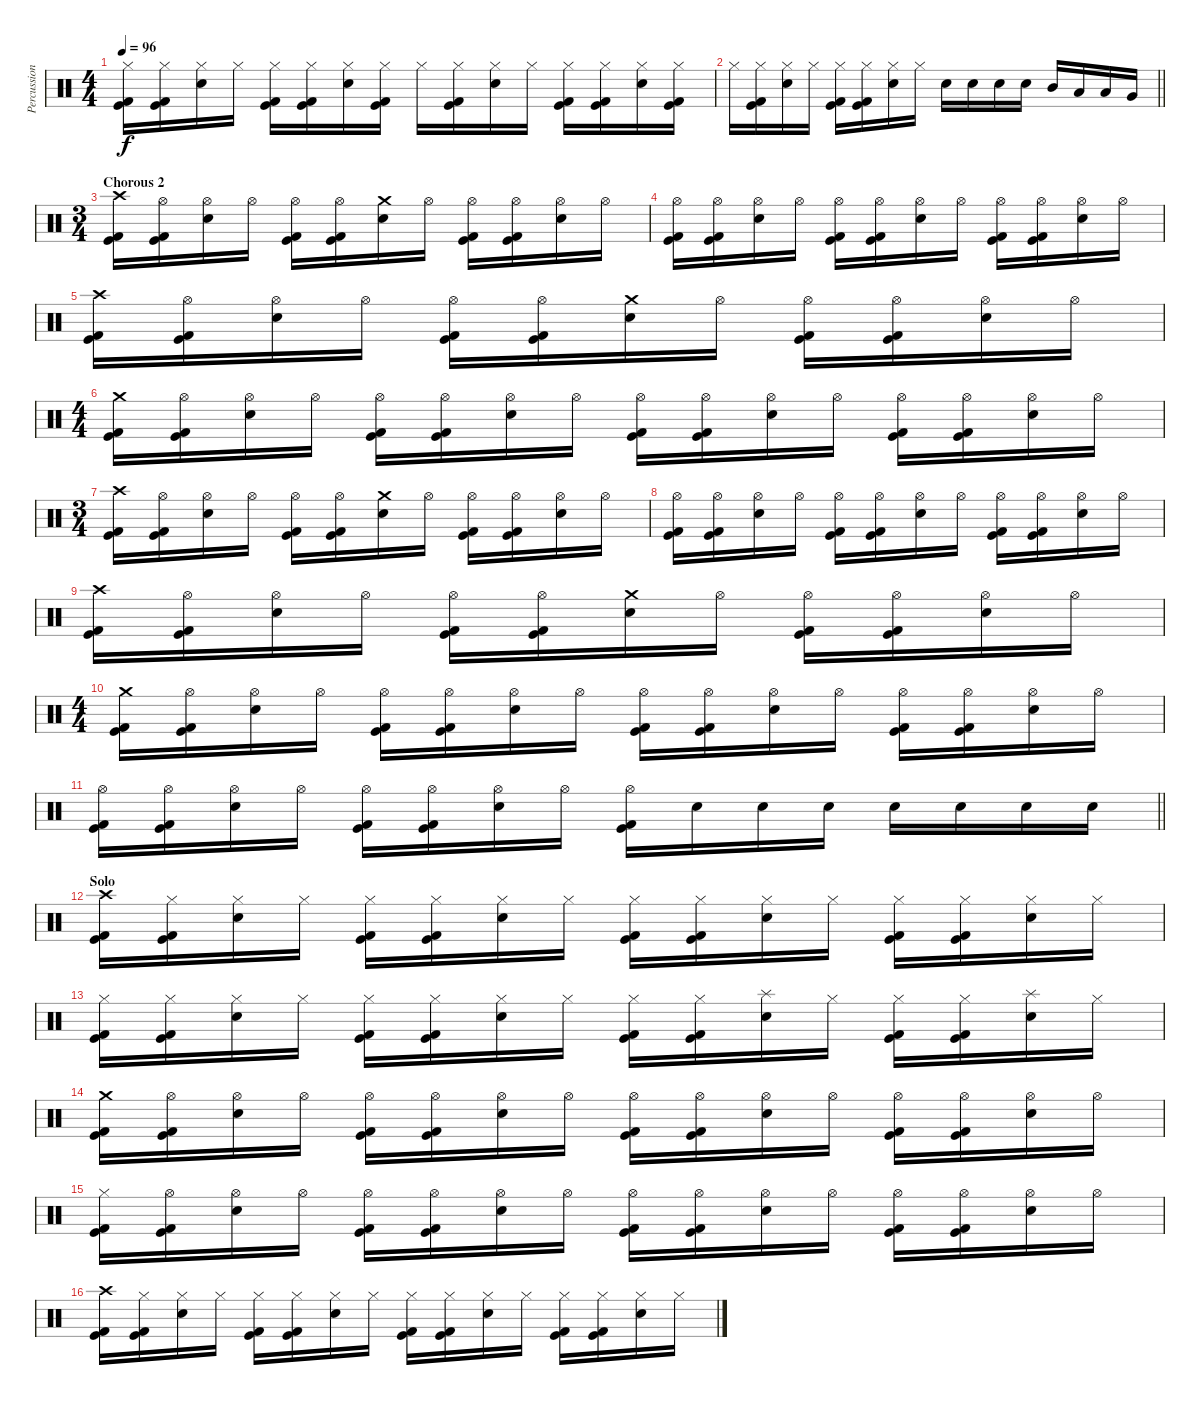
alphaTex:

\track ("Percussion" "Percussion") {instrument percussion}
\staff {score}
\articulation defaults
\ts (4 4)
\tempo 96
\clef neutral
\ks c
("Hi-Hat (closed)" "Kick (hit)" "Kick (hit) 2").16{dy f} ("Hi-Hat (closed)" "Kick (hit)" "Kick (hit) 2").16 ("Hi-Hat (closed)" "Electric Snare (hit)").16 "Hi-Hat (closed)".16 ("Hi-Hat (closed)" "Kick (hit)" "Kick (hit) 2").16 ("Hi-Hat (closed)" "Kick (hit)" "Kick (hit) 2").16 ("Hi-Hat (closed)" "Electric Snare (hit)").16 ("Hi-Hat (closed)" "Kick (hit)" "Kick (hit) 2").16 "Hi-Hat (closed)".16 ("Hi-Hat (closed)" "Kick (hit)" "Kick (hit) 2").16 ("Hi-Hat (closed)" "Electric Snare (hit)").16 "Hi-Hat (closed)".16 ("Hi-Hat (closed)" "Kick (hit)" "Kick (hit) 2").16 ("Hi-Hat (closed)" "Kick (hit)" "Kick (hit) 2").16 ("Hi-Hat (closed)" "Electric Snare (hit)").16 ("Hi-Hat (closed)" "Kick (hit)" "Kick (hit) 2").16 |
\barLineRight lightlight "Hi-Hat (closed)".16
("Hi-Hat (closed)" "Kick (hit)" "Kick (hit) 2").16 ("Hi-Hat (closed)" "Electric Snare (hit)").16 "Hi-Hat (closed)".16 ("Hi-Hat (closed)" "Kick (hit)" "Kick (hit) 2").16 ("Hi-Hat (closed)" "Kick (hit)" "Kick (hit) 2").16 ("Hi-Hat (closed)" "Electric Snare (hit)").16 "Hi-Hat (closed)".16 "Electric Snare (hit)".16 "Electric Snare (hit)".16 "Electric Snare (hit)".16 "Electric Snare (hit)".16 "Mid Tom (hit)".16 "Low Tom (hit)".16 "Low Tom (hit)".16 "Very Low Tom (hit)".16 |
\ts (3 4)
\section ("" "Chorous 2")
("Crash high (hit)" "Kick (hit)" "Kick (hit) 2").16 ("Hi-Hat (open)" "Kick (hit)" "Kick (hit) 2").16 ("Hi-Hat (open)" "Electric Snare (hit)").16 "Hi-Hat (open)".16 ("Hi-Hat (open)" "Kick (hit)" "Kick (hit) 2").16 ("Hi-Hat (open)" "Kick (hit)" "Kick (hit) 2").16 ("Crash medium (hit)" "Electric Snare (hit)").16 "Hi-Hat (open)".16 ("Hi-Hat (open)" "Kick (hit)" "Kick (hit) 2").16 ("Hi-Hat (open)" "Kick (hit)" "Kick (hit) 2").16 ("Hi-Hat (open)" "Electric Snare (hit)").16 "Hi-Hat (open)".16 |
("Hi-Hat (open)" "Kick (hit)" "Kick (hit) 2").16 ("Hi-Hat (open)" "Kick (hit)" "Kick (hit) 2").16 ("Hi-Hat (open)" "Electric Snare (hit)").16 "Hi-Hat (open)".16 ("Hi-Hat (open)" "Kick (hit)" "Kick (hit) 2").16 ("Hi-Hat (open)" "Kick (hit)" "Kick (hit) 2").16 ("Hi-Hat (open)" "Electric Snare (hit)").16 "Hi-Hat (open)".16 ("Hi-Hat (open)" "Kick (hit)" "Kick (hit) 2").16 ("Hi-Hat (open)" "Kick (hit)" "Kick (hit) 2").16 ("Hi-Hat (open)" "Electric Snare (hit)").16 "Hi-Hat (open)".16 |
("Crash high (hit)" "Kick (hit)" "Kick (hit) 2").16 ("Hi-Hat (open)" "Kick (hit)" "Kick (hit) 2").16 ("Hi-Hat (open)" "Electric Snare (hit)").16 "Hi-Hat (open)".16 ("Hi-Hat (open)" "Kick (hit)" "Kick (hit) 2").16 ("Hi-Hat (open)" "Kick (hit)" "Kick (hit) 2").16 ("Crash medium (hit)" "Electric Snare (hit)").16 "Hi-Hat (open)".16 ("Hi-Hat (open)" "Kick (hit)" "Kick (hit) 2").16 ("Hi-Hat (open)" "Kick (hit)" "Kick (hit) 2").16 ("Hi-Hat (open)" "Electric Snare (hit)").16 "Hi-Hat (open)".16 |
\ts (4 4)
("Crash medium (hit)" "Kick (hit)" "Kick (hit) 2").16 ("Hi-Hat (open)" "Kick (hit)" "Kick (hit) 2").16 ("Hi-Hat (open)" "Electric Snare (hit)").16 "Hi-Hat (open)".16 ("Hi-Hat (open)" "Kick (hit)" "Kick (hit) 2").16 ("Hi-Hat (open)" "Kick (hit)" "Kick (hit) 2").16 ("Hi-Hat (open)" "Electric Snare (hit)").16 "Hi-Hat (open)".16 ("Hi-Hat (open)" "Kick (hit)" "Kick (hit) 2").16 ("Hi-Hat (open)" "Kick (hit)" "Kick (hit) 2").16 ("Hi-Hat (open)" "Electric Snare (hit)").16 "Hi-Hat (open)".16 ("Hi-Hat (open)" "Kick (hit)" "Kick (hit) 2").16 ("Hi-Hat (open)" "Kick (hit)" "Kick (hit) 2").16 ("Hi-Hat (open)" "Electric Snare (hit)").16 "Hi-Hat (open)".16 |
\ts (3 4)
("Crash high (hit)" "Kick (hit)" "Kick (hit) 2").16 ("Hi-Hat (open)" "Kick (hit)" "Kick (hit) 2").16 ("Hi-Hat (open)" "Electric Snare (hit)").16 "Hi-Hat (open)".16 ("Hi-Hat (open)" "Kick (hit)" "Kick (hit) 2").16 ("Hi-Hat (open)" "Kick (hit)" "Kick (hit) 2").16 ("Crash medium (hit)" "Electric Snare (hit)").16 "Hi-Hat (open)".16 ("Hi-Hat (open)" "Kick (hit)" "Kick (hit) 2").16 ("Hi-Hat (open)" "Kick (hit)" "Kick (hit) 2").16 ("Hi-Hat (open)" "Electric Snare (hit)").16 "Hi-Hat (open)".16 |
("Hi-Hat (open)" "Kick (hit)" "Kick (hit) 2").16 ("Hi-Hat (open)" "Kick (hit)" "Kick (hit) 2").16 ("Hi-Hat (open)" "Electric Snare (hit)").16 "Hi-Hat (open)".16 ("Hi-Hat (open)" "Kick (hit)" "Kick (hit) 2").16 ("Hi-Hat (open)" "Kick (hit)" "Kick (hit) 2").16 ("Hi-Hat (open)" "Electric Snare (hit)").16 "Hi-Hat (open)".16 ("Hi-Hat (open)" "Kick (hit)" "Kick (hit) 2").16 ("Hi-Hat (open)" "Kick (hit)" "Kick (hit) 2").16 ("Hi-Hat (open)" "Electric Snare (hit)").16 "Hi-Hat (open)".16 |
("Crash high (hit)" "Kick (hit)" "Kick (hit) 2").16 ("Hi-Hat (open)" "Kick (hit)" "Kick (hit) 2").16 ("Hi-Hat (open)" "Electric Snare (hit)").16 "Hi-Hat (open)".16 ("Hi-Hat (open)" "Kick (hit)" "Kick (hit) 2").16 ("Hi-Hat (open)" "Kick (hit)" "Kick (hit) 2").16 ("Crash medium (hit)" "Electric Snare (hit)").16 "Hi-Hat (open)".16 ("Hi-Hat (open)" "Kick (hit)" "Kick (hit) 2").16 ("Hi-Hat (open)" "Kick (hit)" "Kick (hit) 2").16 ("Hi-Hat (open)" "Electric Snare (hit)").16 "Hi-Hat (open)".16 |
\ts (4 4)
("Crash medium (hit)" "Kick (hit)" "Kick (hit) 2").16 ("Hi-Hat (open)" "Kick (hit)" "Kick (hit) 2").16 ("Hi-Hat (open)" "Electric Snare (hit)").16 "Hi-Hat (open)".16 ("Hi-Hat (open)" "Kick (hit)" "Kick (hit) 2").16 ("Hi-Hat (open)" "Kick (hit)" "Kick (hit) 2").16 ("Hi-Hat (open)" "Electric Snare (hit)").16 "Hi-Hat (open)".16 ("Hi-Hat (open)" "Kick (hit)" "Kick (hit) 2").16 ("Hi-Hat (open)" "Kick (hit)" "Kick (hit) 2").16 ("Hi-Hat (open)" "Electric Snare (hit)").16 "Hi-Hat (open)".16 ("Hi-Hat (open)" "Kick (hit)" "Kick (hit) 2").16 ("Hi-Hat (open)" "Kick (hit)" "Kick (hit) 2").16 ("Hi-Hat (open)" "Electric Snare (hit)").16 "Hi-Hat (open)".16 |
\barLineRight lightlight
("Hi-Hat (open)" "Kick (hit)" "Kick (hit) 2").16 ("Hi-Hat (open)" "Kick (hit)" "Kick (hit) 2").16 ("Hi-Hat (open)" "Electric Snare (hit)").16 "Hi-Hat (open)".16 ("Hi-Hat (open)" "Kick (hit)" "Kick (hit) 2").16 ("Hi-Hat (open)" "Kick (hit)" "Kick (hit) 2").16 ("Hi-Hat (open)" "Electric Snare (hit)").16 "Hi-Hat (open)".16 ("Hi-Hat (open)" "Kick (hit)" "Kick (hit) 2").16 "Electric Snare (hit)".16 "Electric Snare (hit)".16 "Electric Snare (hit)".16 "Electric Snare (hit)".16 "Electric Snare (hit)".16 "Electric Snare (hit)".16 "Electric Snare (hit)".16 |
\section ("" "Solo")
("Crash high (hit)" "Kick (hit)" "Kick (hit) 2").16 ("Hi-Hat (closed)" "Kick (hit)" "Kick (hit) 2").16 ("Hi-Hat (closed)" "Electric Snare (hit)").16 "Hi-Hat (closed)".16 ("Hi-Hat (closed)" "Kick (hit)" "Kick (hit) 2").16 ("Hi-Hat (closed)" "Kick (hit)" "Kick (hit) 2").16 ("Hi-Hat (closed)" "Electric Snare (hit)").16 "Hi-Hat (closed)".16 ("Hi-Hat (closed)" "Kick (hit)" "Kick (hit) 2").16 ("Hi-Hat (closed)" "Kick (hit)" "Kick (hit) 2").16 ("Hi-Hat (closed)" "Electric Snare (hit)").16 "Hi-Hat (closed)".16 ("Hi-Hat (closed)" "Kick (hit)" "Kick (hit) 2").16 ("Hi-Hat (closed)" "Kick (hit)" "Kick (hit) 2").16 ("Hi-Hat (closed)" "Electric Snare (hit)").16 "Hi-Hat (closed)".16 |
("Hi-Hat (closed)" "Kick (hit)" "Kick (hit) 2").16 ("Hi-Hat (closed)" "Kick (hit)" "Kick (hit) 2").16 ("Hi-Hat (closed)" "Electric Snare (hit)").16 "Hi-Hat (closed)".16 ("Hi-Hat (closed)" "Kick (hit)" "Kick (hit) 2").16 ("Hi-Hat (closed)" "Kick (hit)" "Kick (hit) 2").16 ("Hi-Hat (closed)" "Electric Snare (hit)").16 "Hi-Hat (closed)".16 ("Hi-Hat (closed)" "Kick (hit)" "Kick (hit) 2").16 ("Hi-Hat (closed)" "Kick (hit)" "Kick (hit) 2").16 ("Splash (hit)" "Electric Snare (hit)").16 "Hi-Hat (closed)".16 ("Hi-Hat (closed)" "Kick (hit)" "Kick (hit) 2").16 ("Hi-Hat (closed)" "Kick (hit)" "Kick (hit) 2").16 ("Splash (hit)" "Electric Snare (hit)").16 "Hi-Hat (closed)".16 |
("Crash medium (hit)" "Kick (hit)" "Kick (hit) 2").16 ("Hi-Hat (open)" "Kick (hit)" "Kick (hit) 2").16 ("Hi-Hat (open)" "Electric Snare (hit)").16 "Hi-Hat (open)".16 ("Hi-Hat (open)" "Kick (hit)" "Kick (hit) 2").16 ("Hi-Hat (open)" "Kick (hit)" "Kick (hit) 2").16 ("Hi-Hat (open)" "Electric Snare (hit)").16 "Hi-Hat (open)".16 ("Hi-Hat (open)" "Kick (hit)" "Kick (hit) 2").16 ("Hi-Hat (open)" "Kick (hit)" "Kick (hit) 2").16 ("Hi-Hat (open)" "Electric Snare (hit)").16 "Hi-Hat (open)".16 ("Hi-Hat (open)" "Kick (hit)" "Kick (hit) 2").16 ("Hi-Hat (open)" "Kick (hit)" "Kick (hit) 2").16 ("Hi-Hat (open)" "Electric Snare (hit)").16 "Hi-Hat (open)".16 |
("Hi-Hat (closed)" "Kick (hit)" "Kick (hit) 2").16 ("Hi-Hat (open)" "Kick (hit)" "Kick (hit) 2").16 ("Hi-Hat (open)" "Electric Snare (hit)").16 "Hi-Hat (open)".16 ("Hi-Hat (open)" "Kick (hit)" "Kick (hit) 2").16 ("Hi-Hat (open)" "Kick (hit)" "Kick (hit) 2").16 ("Hi-Hat (open)" "Electric Snare (hit)").16 "Hi-Hat (open)".16 ("Hi-Hat (open)" "Kick (hit)" "Kick (hit) 2").16 ("Hi-Hat (open)" "Kick (hit)" "Kick (hit) 2").16 ("Hi-Hat (open)" "Electric Snare (hit)").16 "Hi-Hat (open)".16 ("Hi-Hat (open)" "Kick (hit)" "Kick (hit) 2").16 ("Hi-Hat (open)" "Kick (hit)" "Kick (hit) 2").16 ("Hi-Hat (open)" "Electric Snare (hit)").16 "Hi-Hat (open)".16 |
("Crash high (hit)" "Kick (hit)" "Kick (hit) 2").16 ("Hi-Hat (closed)" "Kick (hit)" "Kick (hit) 2").16 ("Hi-Hat (closed)" "Electric Snare (hit)").16 "Hi-Hat (closed)".16 ("Hi-Hat (closed)" "Kick (hit)" "Kick (hit) 2").16 ("Hi-Hat (closed)" "Kick (hit)" "Kick (hit) 2").16 ("Hi-Hat (closed)" "Electric Snare (hit)").16 "Hi-Hat (closed)".16 ("Hi-Hat (closed)" "Kick (hit)" "Kick (hit) 2").16 ("Hi-Hat (closed)" "Kick (hit)" "Kick (hit) 2").16 ("Hi-Hat (closed)" "Electric Snare (hit)").16 "Hi-Hat (closed)".16 ("Hi-Hat (closed)" "Kick (hit)" "Kick (hit) 2").16 ("Hi-Hat (closed)" "Kick (hit)" "Kick (hit) 2").16 ("Hi-Hat (closed)" "Electric Snare (hit)").16 "Hi-Hat (closed)".16
